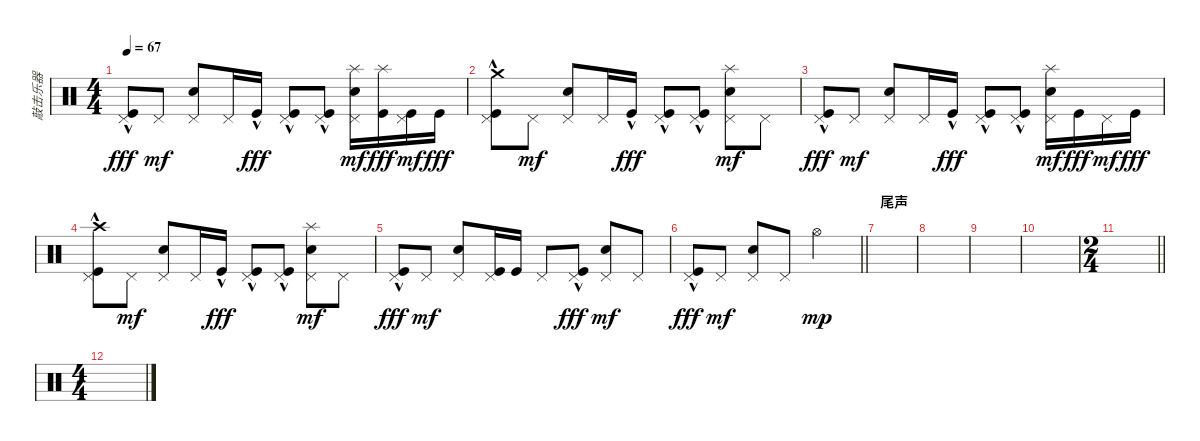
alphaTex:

\track ("敲击乐器" "敲击乐器") {instrument percussion}
\staff {score}
\articulation defaults
\ts (4 4)
\tempo 67
\clef neutral
\ks c
("Pedal Hi-Hat (hit)" "Kick (hit)"{hac}).8{dy fff} "Pedal Hi-Hat (hit)".8{dy mf} ("Electric Snare (hit)" "Pedal Hi-Hat (hit)").8 "Pedal Hi-Hat (hit)".16 "Kick (hit)"{hac}.16{dy fff} ("Pedal Hi-Hat (hit)" "Kick (hit)"{hac}).8 ("Pedal Hi-Hat (hit)" "Kick (hit)"{hac}).8 ("Splash (hit)" "Electric Snare (hit)" "Pedal Hi-Hat (hit)").16{dy mf} ("Splash (hit)" "Kick (hit)").16{dy fff} ("Pedal Hi-Hat (hit)" "Kick (hit)").16{dy mf} "Kick (hit)".16{dy fff} |
("Crash medium (hit)" "Pedal Hi-Hat (hit)" "Kick (hit)"{hac}).8 "Pedal Hi-Hat (hit)".8{dy mf} ("Electric Snare (hit)" "Pedal Hi-Hat (hit)").8 "Pedal Hi-Hat (hit)".16 "Kick (hit)"{hac}.16{dy fff} ("Pedal Hi-Hat (hit)" "Kick (hit)"{hac}).8 ("Pedal Hi-Hat (hit)" "Kick (hit)"{hac}).8 ("Splash (hit)" "Electric Snare (hit)" "Pedal Hi-Hat (hit)").8{dy mf} "Pedal Hi-Hat (hit)".8 |
("Pedal Hi-Hat (hit)" "Kick (hit)"{hac}).8{dy fff} "Pedal Hi-Hat (hit)".8{dy mf} ("Electric Snare (hit)" "Pedal Hi-Hat (hit)").8 "Pedal Hi-Hat (hit)".16 "Kick (hit)"{hac}.16{dy fff} ("Pedal Hi-Hat (hit)" "Kick (hit)"{hac}).8 ("Pedal Hi-Hat (hit)" "Kick (hit)"{hac}).8 ("Splash (hit)" "Electric Snare (hit)" "Pedal Hi-Hat (hit)").16{dy mf} "Kick (hit)".16{dy fff} "Pedal Hi-Hat (hit)".16{dy mf} "Kick (hit)".16{dy fff} |
("Crash high (hit)" "Pedal Hi-Hat (hit)" "Kick (hit)"{hac}).8 "Pedal Hi-Hat (hit)".8{dy mf} ("Electric Snare (hit)" "Pedal Hi-Hat (hit)").8 "Pedal Hi-Hat (hit)".16 "Kick (hit)"{hac}.16{dy fff} ("Pedal Hi-Hat (hit)" "Kick (hit)"{hac}).8 ("Pedal Hi-Hat (hit)" "Kick (hit)"{hac}).8 ("Splash (hit)" "Electric Snare (hit)" "Pedal Hi-Hat (hit)").8{dy mf} "Pedal Hi-Hat (hit)".8 |
("Pedal Hi-Hat (hit)" "Kick (hit)"{hac}).8{dy fff} "Pedal Hi-Hat (hit)".8{dy mf} ("Electric Snare (hit)" "Pedal Hi-Hat (hit)").8 ("Pedal Hi-Hat (hit)" "Kick (hit)").16 "Kick (hit)".16 "Pedal Hi-Hat (hit)".8 ("Pedal Hi-Hat (hit)" "Kick (hit)"{hac}).8{dy fff} ("Electric Snare (hit)" "Pedal Hi-Hat (hit)").8{dy mf} "Pedal Hi-Hat (hit)".8 |
\barLineRight lightlight
("Pedal Hi-Hat (hit)" "Kick (hit)"{hac}).8{dy fff} "Pedal Hi-Hat (hit)".8{dy mf} ("Electric Snare (hit)" "Pedal Hi-Hat (hit)").8 "Pedal Hi-Hat (hit)".8 "Hi-Hat (open)".2{dy mp} |
\section ("" "尾声")
|
|
|
|
\ts (2 4)
\barLineRight lightlight
|
\ts (4 4)
